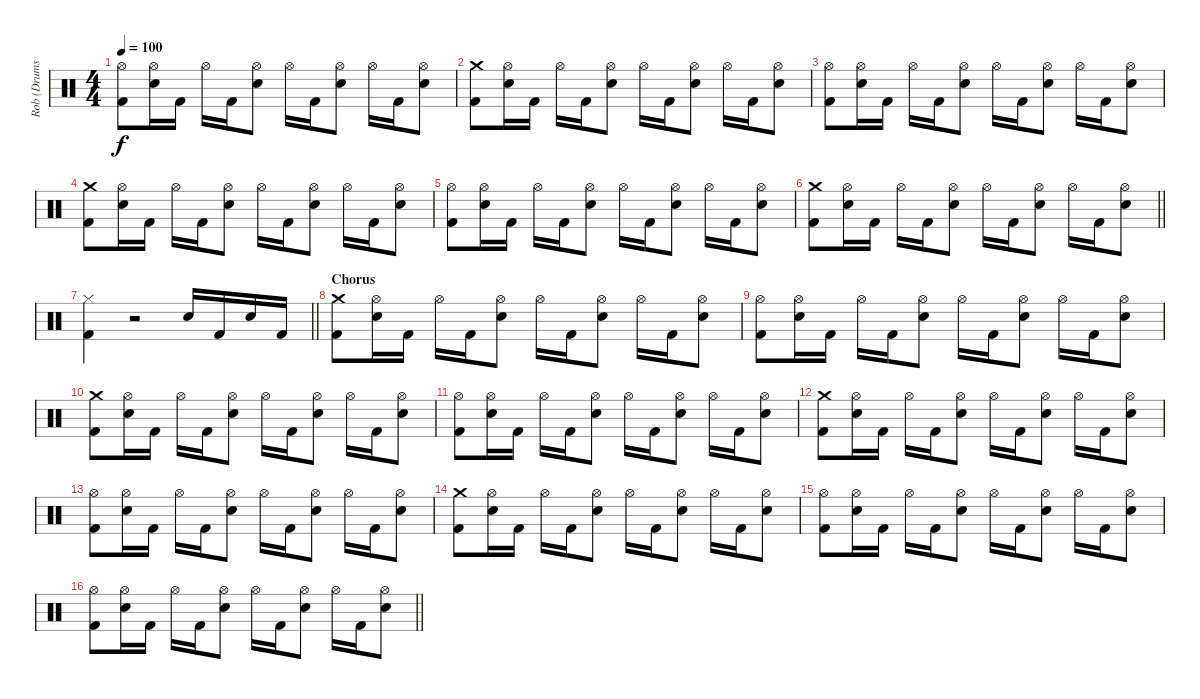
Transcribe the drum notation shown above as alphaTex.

\track ("Rob (Drums)" "Rob (Drums") {instrument percussion}
\staff {score}
\articulation defaults
\ts (4 4)
\tempo 100
\clef neutral
\ks c
("Hi-Hat (open)" "Kick (hit) 2").8{dy f} ("Hi-Hat (open)" "Electric Snare (hit)").16 "Kick (hit) 2".16 "Hi-Hat (open)".16 "Kick (hit) 2".16 ("Hi-Hat (open)" "Electric Snare (hit)").8 "Hi-Hat (open)".16 "Kick (hit) 2".16 ("Hi-Hat (open)" "Electric Snare (hit)").8 "Hi-Hat (open)".16 "Kick (hit) 2".16 ("Hi-Hat (open)" "Electric Snare (hit)").8 |
("Crash medium (hit)" "Kick (hit) 2").8 ("Hi-Hat (open)" "Electric Snare (hit)").16 "Kick (hit) 2".16 "Hi-Hat (open)".16 "Kick (hit) 2".16 ("Hi-Hat (open)" "Electric Snare (hit)").8 "Hi-Hat (open)".16 "Kick (hit) 2".16 ("Hi-Hat (open)" "Electric Snare (hit)").8 "Hi-Hat (open)".16 "Kick (hit) 2".16 ("Hi-Hat (open)" "Electric Snare (hit)").8 |
("Hi-Hat (open)" "Kick (hit) 2").8 ("Hi-Hat (open)" "Electric Snare (hit)").16 "Kick (hit) 2".16 "Hi-Hat (open)".16 "Kick (hit) 2".16 ("Hi-Hat (open)" "Electric Snare (hit)").8 "Hi-Hat (open)".16 "Kick (hit) 2".16 ("Hi-Hat (open)" "Electric Snare (hit)").8 "Hi-Hat (open)".16 "Kick (hit) 2".16 ("Hi-Hat (open)" "Electric Snare (hit)").8 |
("Crash medium (hit)" "Kick (hit) 2").8 ("Hi-Hat (open)" "Electric Snare (hit)").16 "Kick (hit) 2".16 "Hi-Hat (open)".16 "Kick (hit) 2".16 ("Hi-Hat (open)" "Electric Snare (hit)").8 "Hi-Hat (open)".16 "Kick (hit) 2".16 ("Hi-Hat (open)" "Electric Snare (hit)").8 "Hi-Hat (open)".16 "Kick (hit) 2".16 ("Hi-Hat (open)" "Electric Snare (hit)").8 |
("Hi-Hat (open)" "Kick (hit) 2").8 ("Hi-Hat (open)" "Electric Snare (hit)").16 "Kick (hit) 2".16 "Hi-Hat (open)".16 "Kick (hit) 2".16 ("Hi-Hat (open)" "Electric Snare (hit)").8 "Hi-Hat (open)".16 "Kick (hit) 2".16 ("Hi-Hat (open)" "Electric Snare (hit)").8 "Hi-Hat (open)".16 "Kick (hit) 2".16 ("Hi-Hat (open)" "Electric Snare (hit)").8 |
\barLineRight lightlight
("Crash medium (hit)" "Kick (hit) 2").8 ("Hi-Hat (open)" "Electric Snare (hit)").16 "Kick (hit) 2".16 "Hi-Hat (open)".16 "Kick (hit) 2".16 ("Hi-Hat (open)" "Electric Snare (hit)").8 "Hi-Hat (open)".16 "Kick (hit) 2".16 ("Hi-Hat (open)" "Electric Snare (hit)").8 "Hi-Hat (open)".16 "Kick (hit) 2".16 ("Hi-Hat (open)" "Electric Snare (hit)").8 |
\barLineRight lightlight
("Hi-Hat (closed)" "Kick (hit) 2").4 r.2 "Electric Snare (hit)".16 "Kick (hit) 2".16 "Electric Snare (hit)".16 "Kick (hit) 2".16 |
\section ("" "Chorus")
("Crash medium (hit)" "Kick (hit) 2").8 ("Hi-Hat (open)" "Electric Snare (hit)").16 "Kick (hit) 2".16 "Hi-Hat (open)".16 "Kick (hit) 2".16 ("Hi-Hat (open)" "Electric Snare (hit)").8 "Hi-Hat (open)".16 "Kick (hit) 2".16 ("Hi-Hat (open)" "Electric Snare (hit)").8 "Hi-Hat (open)".16 "Kick (hit) 2".16 ("Hi-Hat (open)" "Electric Snare (hit)").8 |
("Hi-Hat (open)" "Kick (hit) 2").8 ("Hi-Hat (open)" "Electric Snare (hit)").16 "Kick (hit) 2".16 "Hi-Hat (open)".16 "Kick (hit) 2".16 ("Hi-Hat (open)" "Electric Snare (hit)").8 "Hi-Hat (open)".16 "Kick (hit) 2".16 ("Hi-Hat (open)" "Electric Snare (hit)").8 "Hi-Hat (open)".16 "Kick (hit) 2".16 ("Hi-Hat (open)" "Electric Snare (hit)").8 |
("Crash medium (hit)" "Kick (hit) 2").8 ("Hi-Hat (open)" "Electric Snare (hit)").16 "Kick (hit) 2".16 "Hi-Hat (open)".16 "Kick (hit) 2".16 ("Hi-Hat (open)" "Electric Snare (hit)").8 "Hi-Hat (open)".16 "Kick (hit) 2".16 ("Hi-Hat (open)" "Electric Snare (hit)").8 "Hi-Hat (open)".16 "Kick (hit) 2".16 ("Hi-Hat (open)" "Electric Snare (hit)").8 |
("Hi-Hat (open)" "Kick (hit) 2").8 ("Hi-Hat (open)" "Electric Snare (hit)").16 "Kick (hit) 2".16 "Hi-Hat (open)".16 "Kick (hit) 2".16 ("Hi-Hat (open)" "Electric Snare (hit)").8 "Hi-Hat (open)".16 "Kick (hit) 2".16 ("Hi-Hat (open)" "Electric Snare (hit)").8 "Hi-Hat (open)".16 "Kick (hit) 2".16 ("Hi-Hat (open)" "Electric Snare (hit)").8 |
("Crash medium (hit)" "Kick (hit) 2").8 ("Hi-Hat (open)" "Electric Snare (hit)").16 "Kick (hit) 2".16 "Hi-Hat (open)".16 "Kick (hit) 2".16 ("Hi-Hat (open)" "Electric Snare (hit)").8 "Hi-Hat (open)".16 "Kick (hit) 2".16 ("Hi-Hat (open)" "Electric Snare (hit)").8 "Hi-Hat (open)".16 "Kick (hit) 2".16 ("Hi-Hat (open)" "Electric Snare (hit)").8 |
("Hi-Hat (open)" "Kick (hit) 2").8 ("Hi-Hat (open)" "Electric Snare (hit)").16 "Kick (hit) 2".16 "Hi-Hat (open)".16 "Kick (hit) 2".16 ("Hi-Hat (open)" "Electric Snare (hit)").8 "Hi-Hat (open)".16 "Kick (hit) 2".16 ("Hi-Hat (open)" "Electric Snare (hit)").8 "Hi-Hat (open)".16 "Kick (hit) 2".16 ("Hi-Hat (open)" "Electric Snare (hit)").8 |
("Crash medium (hit)" "Kick (hit) 2").8 ("Hi-Hat (open)" "Electric Snare (hit)").16 "Kick (hit) 2".16 "Hi-Hat (open)".16 "Kick (hit) 2".16 ("Hi-Hat (open)" "Electric Snare (hit)").8 "Hi-Hat (open)".16 "Kick (hit) 2".16 ("Hi-Hat (open)" "Electric Snare (hit)").8 "Hi-Hat (open)".16 "Kick (hit) 2".16 ("Hi-Hat (open)" "Electric Snare (hit)").8 |
("Hi-Hat (open)" "Kick (hit) 2").8 ("Hi-Hat (open)" "Electric Snare (hit)").16 "Kick (hit) 2".16 "Hi-Hat (open)".16 "Kick (hit) 2".16 ("Hi-Hat (open)" "Electric Snare (hit)").8 "Hi-Hat (open)".16 "Kick (hit) 2".16 ("Hi-Hat (open)" "Electric Snare (hit)").8 "Hi-Hat (open)".16 "Kick (hit) 2".16 ("Hi-Hat (open)" "Electric Snare (hit)").8 |
\barLineRight lightlight
("Hi-Hat (open)" "Kick (hit) 2").8 ("Hi-Hat (open)" "Electric Snare (hit)").16 "Kick (hit) 2".16 "Hi-Hat (open)".16 "Kick (hit) 2".16 ("Hi-Hat (open)" "Electric Snare (hit)").8 "Hi-Hat (open)".16 "Kick (hit) 2".16 ("Hi-Hat (open)" "Electric Snare (hit)").8 "Hi-Hat (open)".16 "Kick (hit) 2".16 ("Hi-Hat (open)" "Electric Snare (hit)").8
